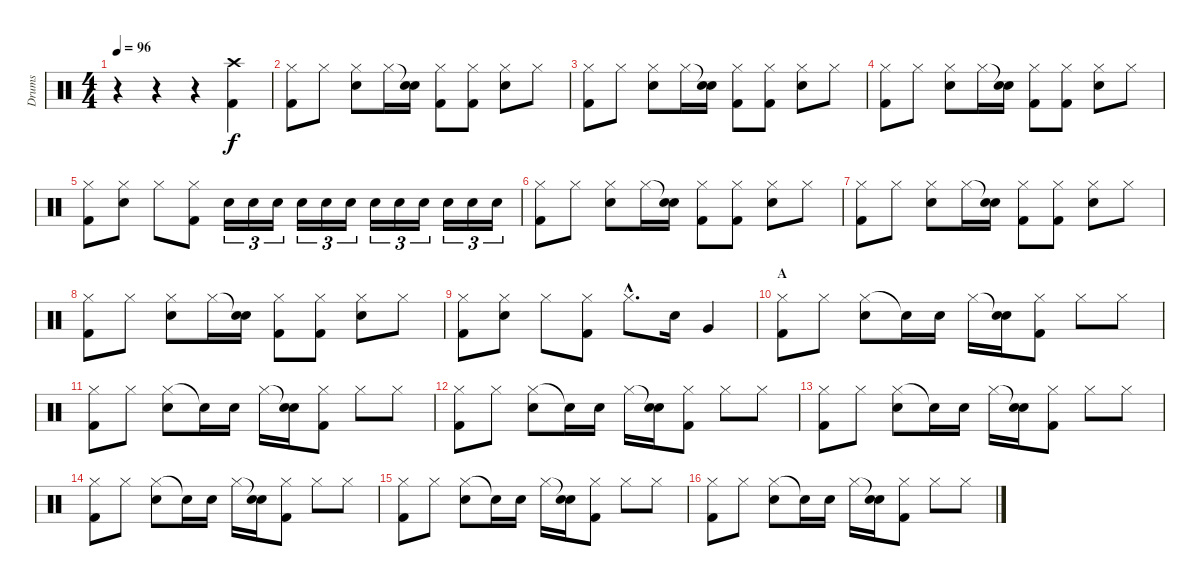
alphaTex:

\track ("Drums" "Drums") {instrument percussion}
\staff {score}
\articulation defaults
\ts (4 4)
\tempo 96
\clef neutral
\ks c
r.4{dy f} r.4 r.4 ("Crash high (hit)" "Kick (hit) 2").4 |
("Hi-Hat (closed)" "Kick (hit) 2").8 "Hi-Hat (closed)".8 ("Hi-Hat (closed)" "Snare (hit) 2").8 "Hi-Hat (closed)".16 ("Snare (hit)"{t} "Snare (hit) 2").16 ("Hi-Hat (closed)" "Kick (hit) 2").8 ("Hi-Hat (closed)" "Kick (hit) 2").8 ("Hi-Hat (closed)" "Snare (hit) 2").8 "Hi-Hat (closed)".8 |
("Hi-Hat (closed)" "Kick (hit) 2").8 "Hi-Hat (closed)".8 ("Hi-Hat (closed)" "Snare (hit) 2").8 "Hi-Hat (closed)".16 ("Snare (hit)"{t} "Snare (hit) 2").16 ("Hi-Hat (closed)" "Kick (hit) 2").8 ("Hi-Hat (closed)" "Kick (hit) 2").8 ("Hi-Hat (closed)" "Snare (hit) 2").8 "Hi-Hat (closed)".8 |
("Hi-Hat (closed)" "Kick (hit) 2").8 "Hi-Hat (closed)".8 ("Hi-Hat (closed)" "Snare (hit) 2").8 "Hi-Hat (closed)".16 ("Snare (hit)"{t} "Snare (hit) 2").16 ("Hi-Hat (closed)" "Kick (hit) 2").8 ("Hi-Hat (closed)" "Kick (hit) 2").8 ("Hi-Hat (closed)" "Snare (hit) 2").8 "Hi-Hat (closed)".8 |
("Hi-Hat (closed)" "Kick (hit) 2").8 ("Hi-Hat (closed)" "Snare (hit) 2").8 "Hi-Hat (closed)".8 ("Hi-Hat (closed)" "Kick (hit) 2").8 "Snare (hit) 2".16{tu (3 2)} "Snare (hit) 2".16{tu (3 2)} "Snare (hit) 2".16{tu (3 2)} "Snare (hit) 2".16{tu (3 2)} "Snare (hit) 2".16{tu (3 2)} "Snare (hit) 2".16{tu (3 2)} "Snare (hit) 2".16{tu (3 2)} "Snare (hit) 2".16{tu (3 2)} "Snare (hit) 2".16{tu (3 2)} "Snare (hit) 2".16{tu (3 2)} "Snare (hit) 2".16{tu (3 2)} "Snare (hit) 2".16{tu (3 2)} |
("Hi-Hat (closed)" "Kick (hit) 2").8 "Hi-Hat (closed)".8 ("Hi-Hat (closed)" "Snare (hit) 2").8 "Hi-Hat (closed)".16 ("Snare (hit)"{t} "Snare (hit) 2").16 ("Hi-Hat (closed)" "Kick (hit) 2").8 ("Hi-Hat (closed)" "Kick (hit) 2").8 ("Hi-Hat (closed)" "Snare (hit) 2").8 "Hi-Hat (closed)".8 |
("Hi-Hat (closed)" "Kick (hit) 2").8 "Hi-Hat (closed)".8 ("Hi-Hat (closed)" "Snare (hit) 2").8 "Hi-Hat (closed)".16 ("Snare (hit)"{t} "Snare (hit) 2").16 ("Hi-Hat (closed)" "Kick (hit) 2").8 ("Hi-Hat (closed)" "Kick (hit) 2").8 ("Hi-Hat (closed)" "Snare (hit) 2").8 "Hi-Hat (closed)".8 |
("Hi-Hat (closed)" "Kick (hit) 2").8 "Hi-Hat (closed)".8 ("Hi-Hat (closed)" "Snare (hit) 2").8 "Hi-Hat (closed)".16 ("Snare (hit)"{t} "Snare (hit) 2").16 ("Hi-Hat (closed)" "Kick (hit) 2").8 ("Hi-Hat (closed)" "Kick (hit) 2").8 ("Hi-Hat (closed)" "Snare (hit) 2").8 "Hi-Hat (closed)".8 |
("Hi-Hat (closed)" "Kick (hit) 2").8 ("Hi-Hat (closed)" "Snare (hit) 2").8 "Hi-Hat (closed)".8 ("Hi-Hat (closed)" "Kick (hit) 2").8 "Hi-Hat (closed)"{hac}.8{d} "Snare (hit) 2".16 "Very Low Tom (hit)".4 |
\section ("" "A")
("Hi-Hat (closed)" "Kick (hit) 2").8 "Hi-Hat (closed)".8 ("Hi-Hat (closed)" "Snare (hit) 2").8 "Snare (hit)"{t}.16 "Snare (hit) 2".16 "Hi-Hat (closed)".16 ("Snare (hit)"{t} "Snare (hit) 2").16 ("Hi-Hat (closed)" "Kick (hit) 2").8 "Hi-Hat (closed)".8 "Hi-Hat (closed)".8 |
("Hi-Hat (closed)" "Kick (hit) 2").8 "Hi-Hat (closed)".8 ("Hi-Hat (closed)" "Snare (hit) 2").8 "Snare (hit)"{t}.16 "Snare (hit) 2".16 "Hi-Hat (closed)".16 ("Snare (hit)"{t} "Snare (hit) 2").16 ("Hi-Hat (closed)" "Kick (hit) 2").8 "Hi-Hat (closed)".8 "Hi-Hat (closed)".8 |
("Hi-Hat (closed)" "Kick (hit) 2").8 "Hi-Hat (closed)".8 ("Hi-Hat (closed)" "Snare (hit) 2").8 "Snare (hit)"{t}.16 "Snare (hit) 2".16 "Hi-Hat (closed)".16 ("Snare (hit)"{t} "Snare (hit) 2").16 ("Hi-Hat (closed)" "Kick (hit) 2").8 "Hi-Hat (closed)".8 "Hi-Hat (closed)".8 |
("Hi-Hat (closed)" "Kick (hit) 2").8 "Hi-Hat (closed)".8 ("Hi-Hat (closed)" "Snare (hit) 2").8 "Snare (hit)"{t}.16 "Snare (hit) 2".16 "Hi-Hat (closed)".16 ("Snare (hit)"{t} "Snare (hit) 2").16 ("Hi-Hat (closed)" "Kick (hit) 2").8 "Hi-Hat (closed)".8 "Hi-Hat (closed)".8 |
("Hi-Hat (closed)" "Kick (hit) 2").8 "Hi-Hat (closed)".8 ("Hi-Hat (closed)" "Snare (hit) 2").8 "Snare (hit)"{t}.16 "Snare (hit) 2".16 "Hi-Hat (closed)".16 ("Snare (hit)"{t} "Snare (hit) 2").16 ("Hi-Hat (closed)" "Kick (hit) 2").8 "Hi-Hat (closed)".8 "Hi-Hat (closed)".8 |
("Hi-Hat (closed)" "Kick (hit) 2").8 "Hi-Hat (closed)".8 ("Hi-Hat (closed)" "Snare (hit) 2").8 "Snare (hit)"{t}.16 "Snare (hit) 2".16 "Hi-Hat (closed)".16 ("Snare (hit)"{t} "Snare (hit) 2").16 ("Hi-Hat (closed)" "Kick (hit) 2").8 "Hi-Hat (closed)".8 "Hi-Hat (closed)".8 |
("Hi-Hat (closed)" "Kick (hit) 2").8 "Hi-Hat (closed)".8 ("Hi-Hat (closed)" "Snare (hit) 2").8 "Snare (hit)"{t}.16 "Snare (hit) 2".16 "Hi-Hat (closed)".16 ("Snare (hit)"{t} "Snare (hit) 2").16 ("Hi-Hat (closed)" "Kick (hit) 2").8 "Hi-Hat (closed)".8 "Hi-Hat (closed)".8
